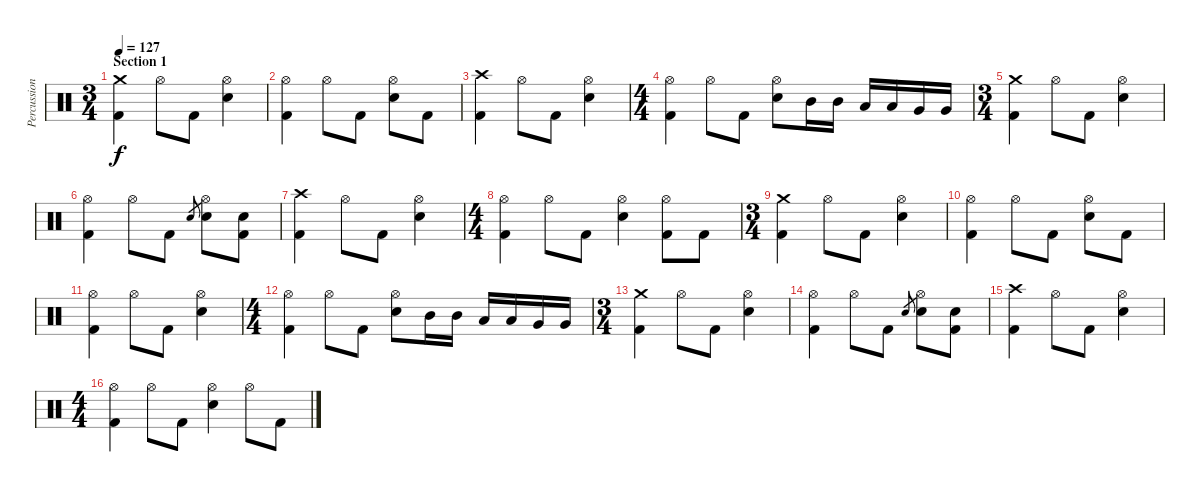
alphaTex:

\track ("Percussion" "Percussion") {instrument percussion}
\staff {score}
\articulation defaults
\ts (3 4)
\section ("" "Section 1")
\tempo 127
\clef neutral
\ks c
("Crash medium (hit)" "Kick (hit) 2").4{dy f} "Hi-Hat (open)".8 "Kick (hit) 2".8 ("Hi-Hat (open)" "Electric Snare (hit)").4 |
("Hi-Hat (open)" "Kick (hit) 2").4 "Hi-Hat (open)".8 "Kick (hit) 2".8 ("Hi-Hat (open)" "Electric Snare (hit)").8 "Kick (hit) 2".8 |
("Crash high (hit)" "Kick (hit) 2").4 "Hi-Hat (open)".8 "Kick (hit) 2".8 ("Hi-Hat (open)" "Electric Snare (hit)").4 |
\ts (4 4)
("Hi-Hat (open)" "Kick (hit) 2").4 "Hi-Hat (open)".8 "Kick (hit) 2".8 ("Hi-Hat (open)" "Electric Snare (hit)").8 "Mid Tom (hit)".16 "Mid Tom (hit)".16 "Low Tom (hit)".16 "Low Tom (hit)".16 "Very Low Tom (hit)".16 "Very Low Tom (hit)".16 |
\ts (3 4)
("Crash medium (hit)" "Kick (hit) 2").4 "Hi-Hat (open)".8 "Kick (hit) 2".8 ("Hi-Hat (open)" "Electric Snare (hit)").4 |
("Hi-Hat (open)" "Kick (hit) 2").4 "Hi-Hat (open)".8 "Kick (hit) 2".8 "Electric Snare (hit)".8{gr} ("Hi-Hat (open)" "Electric Snare (hit)").8 ("Electric Snare (hit)" "Kick (hit) 2").8 |
("Crash high (hit)" "Kick (hit) 2").4 "Hi-Hat (open)".8 "Kick (hit) 2".8 ("Hi-Hat (open)" "Electric Snare (hit)").4 |
\ts (4 4)
("Hi-Hat (open)" "Kick (hit) 2").4 "Hi-Hat (open)".8 "Kick (hit) 2".8 ("Hi-Hat (open)" "Electric Snare (hit)").4 ("Hi-Hat (open)" "Kick (hit) 2").8 "Kick (hit) 2".8 |
\ts (3 4)
("Crash medium (hit)" "Kick (hit) 2").4 "Hi-Hat (open)".8 "Kick (hit) 2".8 ("Hi-Hat (open)" "Electric Snare (hit)").4 |
("Hi-Hat (open)" "Kick (hit) 2").4 "Hi-Hat (open)".8 "Kick (hit) 2".8 ("Hi-Hat (open)" "Electric Snare (hit)").8 "Kick (hit) 2".8 |
("Hi-Hat (open)" "Kick (hit) 2").4 "Hi-Hat (open)".8 "Kick (hit) 2".8 ("Hi-Hat (open)" "Electric Snare (hit)").4 |
\ts (4 4)
("Hi-Hat (open)" "Kick (hit) 2").4 "Hi-Hat (open)".8 "Kick (hit) 2".8 ("Hi-Hat (open)" "Electric Snare (hit)").8 "Mid Tom (hit)".16 "Mid Tom (hit)".16 "Low Tom (hit)".16 "Low Tom (hit)".16 "Very Low Tom (hit)".16 "Very Low Tom (hit)".16 |
\ts (3 4)
("Crash medium (hit)" "Kick (hit) 2").4 "Hi-Hat (open)".8 "Kick (hit) 2".8 ("Hi-Hat (open)" "Electric Snare (hit)").4 |
("Hi-Hat (open)" "Kick (hit) 2").4 "Hi-Hat (open)".8 "Kick (hit) 2".8 "Electric Snare (hit)".8{gr} ("Hi-Hat (open)" "Electric Snare (hit)").8 ("Electric Snare (hit)" "Kick (hit) 2").8 |
("Crash high (hit)" "Kick (hit) 2").4 "Hi-Hat (open)".8 "Kick (hit) 2".8 ("Hi-Hat (open)" "Electric Snare (hit)").4 |
\ts (4 4)
("Hi-Hat (open)" "Kick (hit) 2").4 "Hi-Hat (open)".8 "Kick (hit) 2".8 ("Hi-Hat (open)" "Electric Snare (hit)").4 "Hi-Hat (open)".8 "Kick (hit) 2".8
